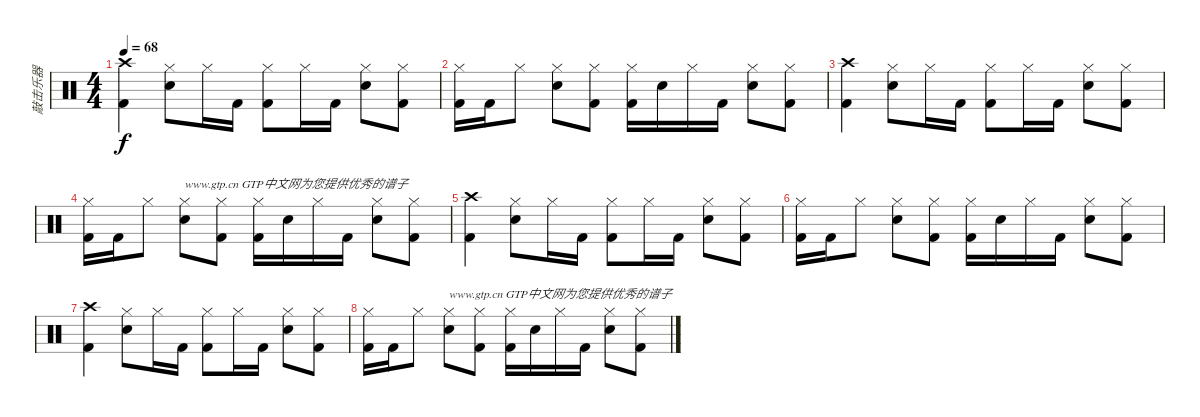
\track ("敲击乐器" "敲击乐器") {instrument percussion}
\staff {score}
\articulation defaults
\ts (4 4)
\tempo 68
\clef neutral
\ks c
("Crash high (hit)" "Kick (hit) 2").4{dy f} ("Hi-Hat (closed)" "Snare (hit) 2").8 "Hi-Hat (closed)".16 "Kick (hit) 2".16 ("Hi-Hat (closed)" "Kick (hit) 2").8 "Hi-Hat (closed)".16 "Kick (hit) 2".16 ("Hi-Hat (closed)" "Snare (hit) 2").8 ("Hi-Hat (closed)" "Kick (hit) 2").8 |
("Hi-Hat (closed)" "Kick (hit) 2").16 "Kick (hit) 2".16 "Hi-Hat (closed)".8 ("Hi-Hat (closed)" "Snare (hit) 2").8 ("Hi-Hat (closed)" "Kick (hit) 2").8 ("Hi-Hat (closed)" "Kick (hit) 2").16 "Snare (hit) 2".16 "Hi-Hat (closed)".16 "Kick (hit) 2".16 ("Hi-Hat (closed)" "Snare (hit) 2").8 ("Hi-Hat (closed)" "Kick (hit) 2").8 |
("Crash high (hit)" "Kick (hit) 2").4 ("Hi-Hat (closed)" "Snare (hit) 2").8 "Hi-Hat (closed)".16 "Kick (hit) 2".16 ("Hi-Hat (closed)" "Kick (hit) 2").8 "Hi-Hat (closed)".16 "Kick (hit) 2".16 ("Hi-Hat (closed)" "Snare (hit) 2").8 ("Hi-Hat (closed)" "Kick (hit) 2").8 |
("Hi-Hat (closed)" "Kick (hit) 2").16 "Kick (hit) 2".16 "Hi-Hat (closed)".8 ("Hi-Hat (closed)" "Snare (hit) 2").8{txt "www.gtp.cn GTP中文网为您提供优秀的谱子"} ("Hi-Hat (closed)" "Kick (hit) 2").8 ("Hi-Hat (closed)" "Kick (hit) 2").16 "Snare (hit) 2".16 "Hi-Hat (closed)".16 "Kick (hit) 2".16 ("Hi-Hat (closed)" "Snare (hit) 2").8 ("Hi-Hat (closed)" "Kick (hit) 2").8 |
("Crash high (hit)" "Kick (hit) 2").4 ("Hi-Hat (closed)" "Snare (hit) 2").8 "Hi-Hat (closed)".16 "Kick (hit) 2".16 ("Hi-Hat (closed)" "Kick (hit) 2").8 "Hi-Hat (closed)".16 "Kick (hit) 2".16 ("Hi-Hat (closed)" "Snare (hit) 2").8 ("Hi-Hat (closed)" "Kick (hit) 2").8 |
("Hi-Hat (closed)" "Kick (hit) 2").16 "Kick (hit) 2".16 "Hi-Hat (closed)".8 ("Hi-Hat (closed)" "Snare (hit) 2").8 ("Hi-Hat (closed)" "Kick (hit) 2").8 ("Hi-Hat (closed)" "Kick (hit) 2").16 "Snare (hit) 2".16 "Hi-Hat (closed)".16 "Kick (hit) 2".16 ("Hi-Hat (closed)" "Snare (hit) 2").8 ("Hi-Hat (closed)" "Kick (hit) 2").8 |
("Crash high (hit)" "Kick (hit) 2").4 ("Hi-Hat (closed)" "Snare (hit) 2").8 "Hi-Hat (closed)".16 "Kick (hit) 2".16 ("Hi-Hat (closed)" "Kick (hit) 2").8 "Hi-Hat (closed)".16 "Kick (hit) 2".16 ("Hi-Hat (closed)" "Snare (hit) 2").8 ("Hi-Hat (closed)" "Kick (hit) 2").8 |
("Hi-Hat (closed)" "Kick (hit) 2").16 "Kick (hit) 2".16 "Hi-Hat (closed)".8 ("Hi-Hat (closed)" "Snare (hit) 2").8{txt "www.gtp.cn GTP中文网为您提供优秀的谱子"} ("Hi-Hat (closed)" "Kick (hit) 2").8 ("Hi-Hat (closed)" "Kick (hit) 2").16 "Snare (hit) 2".16 "Hi-Hat (closed)".16 "Kick (hit) 2".16 ("Hi-Hat (closed)" "Snare (hit) 2").8 ("Hi-Hat (closed)" "Kick (hit) 2").8
